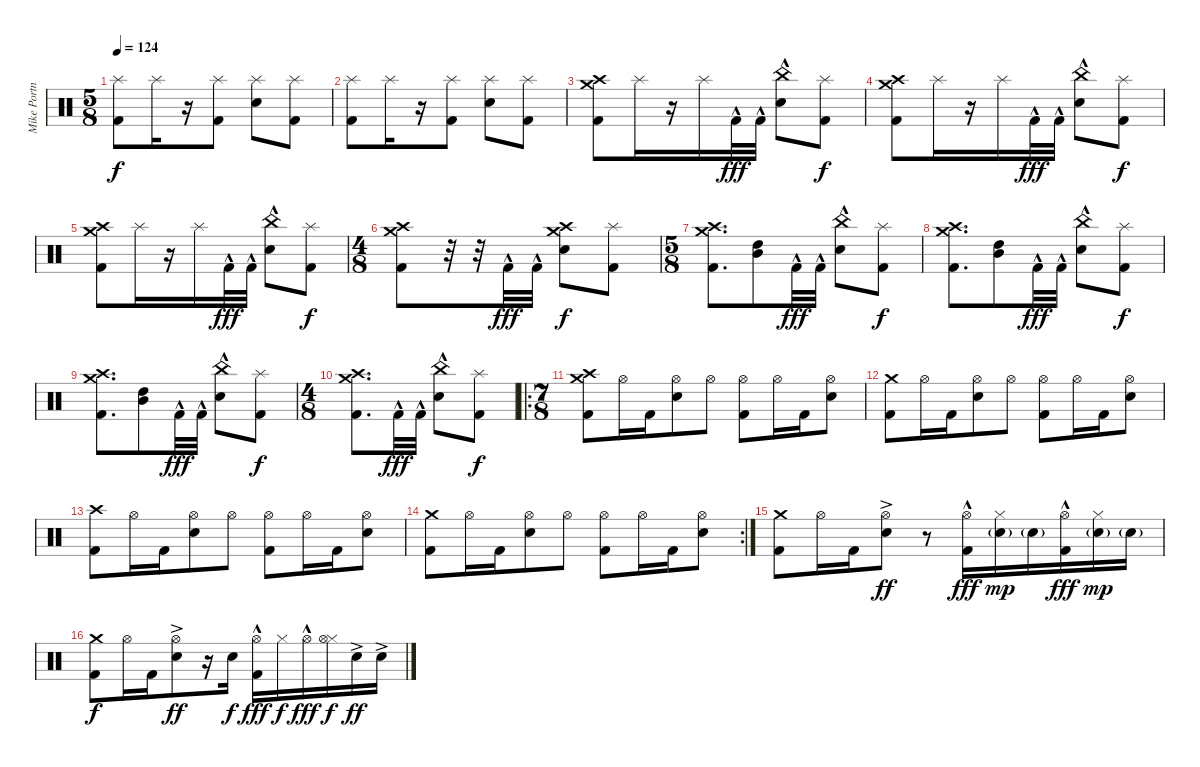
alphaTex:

\track ("Mike Portnoy Drums" "Mike Portn") {instrument percussion}
\staff {score}
\articulation defaults
\ts (5 8)
\tempo 124
\clef neutral
\ks c
("Splash (hit)" "Kick (hit) 2").8{dy f} "Splash (hit)".16 r.16 ("Splash (hit)" "Kick (hit) 2").8 ("Splash (hit)" "Electric Snare (hit)").8 ("Splash (hit)" "Kick (hit) 2").8 |
("Splash (hit)" "Kick (hit) 2").8 "Splash (hit)".16 r.16 ("Splash (hit)" "Kick (hit) 2").8 ("Splash (hit)" "Electric Snare (hit)").8 ("Splash (hit)" "Kick (hit) 2").8 |
("Crash medium (hit)" "Crash high (hit)" "Kick (hit) 2").8 "Splash (hit)".16 r.16 "Splash (hit)".16 "Kick (hit) 2"{hac}.32{dy fff} "Kick (hit) 2"{hac}.32 ("China (hit)"{hac} "Electric Snare (hit)").8 ("Splash (hit)" "Kick (hit) 2").8{dy f} |
("Crash medium (hit)" "Crash high (hit)" "Kick (hit) 2").8 "Splash (hit)".16 r.16 "Splash (hit)".16 "Kick (hit) 2"{hac}.32{dy fff} "Kick (hit) 2"{hac}.32 ("China (hit)"{hac} "Electric Snare (hit)").8 ("Splash (hit)" "Kick (hit) 2").8{dy f} |
("Crash medium (hit)" "Crash high (hit)" "Kick (hit) 2").8 "Splash (hit)".16 r.16 "Splash (hit)".16 "Kick (hit) 2"{hac}.32{dy fff} "Kick (hit) 2"{hac}.32 ("China (hit)"{hac} "Electric Snare (hit)").8 ("Splash (hit)" "Kick (hit) 2").8{dy f} |
\ts (4 8)
("Crash medium (hit)" "Crash high (hit)" "Kick (hit) 2").8 r.32 r.32 "Kick (hit) 2"{hac}.32{dy fff} "Kick (hit) 2"{hac}.32 ("Crash medium (hit)" "Crash high (hit)" "Electric Snare (hit)").8{dy f} ("Splash (hit)" "Kick (hit) 2").8 |
\ts (5 8)
("Crash medium (hit)" "Crash high (hit)" "Kick (hit) 2").8{d} ("High Tom (hit)" "Mid Tom (hit)").8 "Kick (hit) 2"{hac}.32{dy fff} "Kick (hit) 2"{hac}.32 ("China (hit)"{hac} "Electric Snare (hit)").8 ("Splash (hit)" "Kick (hit) 2").8{dy f} |
("Crash medium (hit)" "Crash high (hit)" "Kick (hit) 2").8{d} ("High Tom (hit)" "Mid Tom (hit)").8 "Kick (hit) 2"{hac}.32{dy fff} "Kick (hit) 2"{hac}.32 ("China (hit)"{hac} "Electric Snare (hit)").8 ("Splash (hit)" "Kick (hit) 2").8{dy f} |
("Crash medium (hit)" "Crash high (hit)" "Kick (hit) 2").8{d} ("High Tom (hit)" "Mid Tom (hit)").8 "Kick (hit) 2"{hac}.32{dy fff} "Kick (hit) 2"{hac}.32 ("China (hit)"{hac} "Electric Snare (hit)").8 ("Splash (hit)" "Kick (hit) 2").8{dy f} |
\ts (4 8)
("Crash medium (hit)" "Crash high (hit)" "Kick (hit) 2").8{d} "Kick (hit) 2"{hac}.32{dy fff} "Kick (hit) 2"{hac}.32 ("China (hit)"{hac} "Electric Snare (hit)").8 ("Splash (hit)" "Kick (hit) 2").8{dy f} |
\ro
\ts (7 8)
("Crash medium (hit)" "Crash high (hit)" "Kick (hit) 2").8 "Hi-Hat (open)".16 "Kick (hit) 2".16 ("Hi-Hat (open)" "Electric Snare (hit)").8 "Hi-Hat (open)".8 ("Hi-Hat (open)" "Kick (hit) 2").8 "Hi-Hat (open)".16 "Kick (hit) 2".16 ("Hi-Hat (open)" "Electric Snare (hit)").8 |
("Crash medium (hit)" "Kick (hit) 2").8 "Hi-Hat (open)".16 "Kick (hit) 2".16 ("Hi-Hat (open)" "Electric Snare (hit)").8 "Hi-Hat (open)".8 ("Hi-Hat (open)" "Kick (hit) 2").8 "Hi-Hat (open)".16 "Kick (hit) 2".16 ("Hi-Hat (open)" "Electric Snare (hit)").8 |
("Crash high (hit)" "Kick (hit) 2").8 "Hi-Hat (open)".16 "Kick (hit) 2".16 ("Hi-Hat (open)" "Electric Snare (hit)").8 "Hi-Hat (open)".8 ("Hi-Hat (open)" "Kick (hit) 2").8 "Hi-Hat (open)".16 "Kick (hit) 2".16 ("Hi-Hat (open)" "Electric Snare (hit)").8 |
\rc 2
("Crash medium (hit)" "Kick (hit) 2").8 "Hi-Hat (open)".16 "Kick (hit) 2".16 ("Hi-Hat (open)" "Electric Snare (hit)").8 "Hi-Hat (open)".8 ("Hi-Hat (open)" "Kick (hit) 2").8 "Hi-Hat (open)".16 "Kick (hit) 2".16 ("Hi-Hat (open)" "Electric Snare (hit)").8 |
("Crash medium (hit)" "Kick (hit) 2").8 "Hi-Hat (open)".16 "Kick (hit) 2".16 ("Hi-Hat (open)" "Electric Snare (hit)"{ac}).8{dy ff} r.8 ("Hi-Hat (open)"{hac} "Kick (hit) 2").16{dy fff} ("Hi-Hat (closed)" "Electric Snare (hit)"{g}).16{dy mp} "Electric Snare (hit)"{g}.16 ("Hi-Hat (open)"{hac} "Kick (hit) 2").16{dy fff} ("Hi-Hat (closed)" "Electric Snare (hit)"{g}).16{dy mp} "Electric Snare (hit)"{g}.16 |
("Crash medium (hit)" "Kick (hit) 2").8{dy f} "Hi-Hat (open)".16 "Kick (hit) 2".16 ("Hi-Hat (open)" "Electric Snare (hit)"{ac}).8{dy ff} r.16 "Electric Snare (hit)".16{dy f} ("Hi-Hat (open)"{hac} "Kick (hit) 2").16{dy fff} "Hi-Hat (closed)".16{dy f} "Hi-Hat (open)"{hac}.16{dy fff} ("Hi-Hat (closed)" "Hi-Hat (open)").16{dy f} "Electric Snare (hit)"{ac}.16{dy ff} "Electric Snare (hit)"{ac}.16
